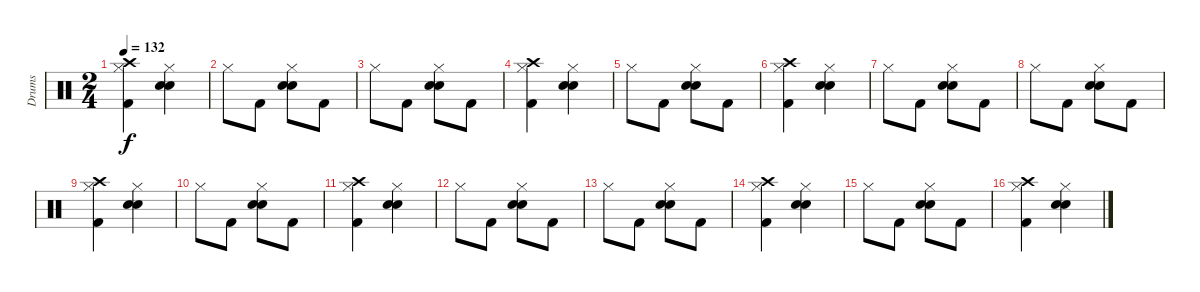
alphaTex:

\track ("Drums" "Drums") {instrument percussion}
\staff {score}
\articulation defaults
\ts (2 4)
\tempo 132
\clef neutral
\ks c
("Kick (hit) 2" "Crash high (hit)" "Hi-Hat (closed)").4{dy f} ("Electric Snare (hit)" "Electric Snare (hit)" "Hi-Hat (closed)").4 |
"Hi-Hat (closed)".8 "Kick (hit) 2".8 ("Electric Snare (hit)" "Electric Snare (hit)" "Hi-Hat (closed)").8 "Kick (hit) 2".8 |
"Hi-Hat (closed)".8 "Kick (hit) 2".8 ("Electric Snare (hit)" "Electric Snare (hit)" "Hi-Hat (closed)").8 "Kick (hit) 2".8 |
("Kick (hit) 2" "Crash high (hit)" "Hi-Hat (closed)").4 ("Electric Snare (hit)" "Electric Snare (hit)" "Hi-Hat (closed)").4 |
"Hi-Hat (closed)".8 "Kick (hit) 2".8 ("Electric Snare (hit)" "Electric Snare (hit)" "Hi-Hat (closed)").8 "Kick (hit) 2".8 |
("Kick (hit) 2" "Crash high (hit)" "Hi-Hat (closed)").4 ("Electric Snare (hit)" "Electric Snare (hit)" "Hi-Hat (closed)").4 |
"Hi-Hat (closed)".8 "Kick (hit) 2".8 ("Electric Snare (hit)" "Electric Snare (hit)" "Hi-Hat (closed)").8 "Kick (hit) 2".8 |
"Hi-Hat (closed)".8 "Kick (hit) 2".8 ("Electric Snare (hit)" "Electric Snare (hit)" "Hi-Hat (closed)").8 "Kick (hit) 2".8 |
("Kick (hit) 2" "Crash high (hit)" "Hi-Hat (closed)").4 ("Electric Snare (hit)" "Electric Snare (hit)" "Hi-Hat (closed)").4 |
"Hi-Hat (closed)".8 "Kick (hit) 2".8 ("Electric Snare (hit)" "Electric Snare (hit)" "Hi-Hat (closed)").8 "Kick (hit) 2".8 |
("Kick (hit) 2" "Crash high (hit)" "Hi-Hat (closed)").4 ("Electric Snare (hit)" "Electric Snare (hit)" "Hi-Hat (closed)").4 |
"Hi-Hat (closed)".8 "Kick (hit) 2".8 ("Electric Snare (hit)" "Electric Snare (hit)" "Hi-Hat (closed)").8 "Kick (hit) 2".8 |
"Hi-Hat (closed)".8 "Kick (hit) 2".8 ("Electric Snare (hit)" "Electric Snare (hit)" "Hi-Hat (closed)").8 "Kick (hit) 2".8 |
("Kick (hit) 2" "Crash high (hit)" "Hi-Hat (closed)").4 ("Electric Snare (hit)" "Electric Snare (hit)" "Hi-Hat (closed)").4 |
"Hi-Hat (closed)".8 "Kick (hit) 2".8 ("Electric Snare (hit)" "Electric Snare (hit)" "Hi-Hat (closed)").8 "Kick (hit) 2".8 |
("Kick (hit) 2" "Crash high (hit)" "Hi-Hat (closed)").4 ("Electric Snare (hit)" "Electric Snare (hit)" "Hi-Hat (closed)").4
